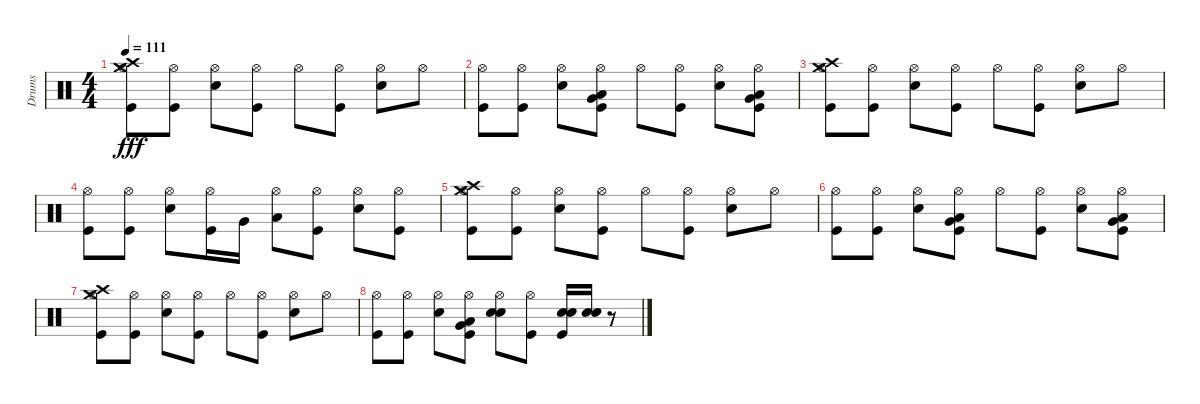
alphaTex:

\track ("Drums" "Drums") {instrument percussion}
\staff {score}
\articulation defaults
\ts (4 4)
\tempo 111
\clef neutral
\ks c
("Hi-Hat (open)" "Crash high (hit)" "Crash medium (hit)" "Kick (hit)").8{dy fff} ("Hi-Hat (open)" "Kick (hit)").8 ("Hi-Hat (open)" "Snare (hit) 2").8 ("Hi-Hat (open)" "Kick (hit)").8 "Hi-Hat (open)".8 ("Hi-Hat (open)" "Kick (hit)").8 ("Hi-Hat (open)" "Snare (hit) 2").8 "Hi-Hat (open)".8 |
("Hi-Hat (open)" "Kick (hit)").8 ("Hi-Hat (open)" "Kick (hit)").8 ("Hi-Hat (open)" "Snare (hit) 2").8 ("Hi-Hat (open)" "Very Low Tom (hit)" "Low Floor Tom (hit)" "Kick (hit)").8 "Hi-Hat (open)".8 ("Hi-Hat (open)" "Kick (hit)").8 ("Hi-Hat (open)" "Snare (hit) 2").8 ("Hi-Hat (open)" "Very Low Tom (hit)" "Low Floor Tom (hit)" "Kick (hit)").8 |
("Hi-Hat (open)" "Crash high (hit)" "Crash medium (hit)" "Kick (hit)").8 ("Hi-Hat (open)" "Kick (hit)").8 ("Hi-Hat (open)" "Snare (hit) 2").8 ("Hi-Hat (open)" "Kick (hit)").8 "Hi-Hat (open)".8 ("Hi-Hat (open)" "Kick (hit)").8 ("Hi-Hat (open)" "Snare (hit) 2").8 "Hi-Hat (open)".8 |
("Hi-Hat (open)" "Kick (hit)").8 ("Hi-Hat (open)" "Kick (hit)").8 ("Hi-Hat (open)" "Snare (hit) 2").8 ("Hi-Hat (open)" "Kick (hit)").16 "Very Low Tom (hit)".16 ("Hi-Hat (open)" "Low Floor Tom (hit)").8 ("Hi-Hat (open)" "Kick (hit)").8 ("Hi-Hat (open)" "Snare (hit) 2").8 ("Hi-Hat (open)" "Kick (hit)").8 |
("Hi-Hat (open)" "Crash high (hit)" "Crash medium (hit)" "Kick (hit)").8 ("Hi-Hat (open)" "Kick (hit)").8 ("Hi-Hat (open)" "Snare (hit) 2").8 ("Hi-Hat (open)" "Kick (hit)").8 "Hi-Hat (open)".8 ("Hi-Hat (open)" "Kick (hit)").8 ("Hi-Hat (open)" "Snare (hit) 2").8 "Hi-Hat (open)".8 |
("Hi-Hat (open)" "Kick (hit)").8 ("Hi-Hat (open)" "Kick (hit)").8 ("Hi-Hat (open)" "Snare (hit) 2").8 ("Hi-Hat (open)" "Very Low Tom (hit)" "Low Floor Tom (hit)" "Kick (hit)").8 "Hi-Hat (open)".8 ("Hi-Hat (open)" "Kick (hit)").8 ("Hi-Hat (open)" "Snare (hit) 2").8 ("Hi-Hat (open)" "Very Low Tom (hit)" "Low Floor Tom (hit)" "Kick (hit)").8 |
("Hi-Hat (open)" "Crash high (hit)" "Crash medium (hit)" "Kick (hit)").8 ("Hi-Hat (open)" "Kick (hit)").8 ("Hi-Hat (open)" "Snare (hit) 2").8 ("Hi-Hat (open)" "Kick (hit)").8 "Hi-Hat (open)".8 ("Hi-Hat (open)" "Kick (hit)").8 ("Hi-Hat (open)" "Snare (hit) 2").8 "Hi-Hat (open)".8 |
("Hi-Hat (open)" "Kick (hit)").8 ("Hi-Hat (open)" "Kick (hit)").8 ("Hi-Hat (open)" "Snare (hit) 2").8 ("Hi-Hat (open)" "Very Low Tom (hit)" "Low Floor Tom (hit)" "Kick (hit)").8 ("Hi-Hat (open)" "Snare (hit) 2" "Electric Snare (hit)").8 ("Hi-Hat (open)" "Kick (hit)").8 ("Snare (hit) 2" "Electric Snare (hit)" "Kick (hit)").16 ("Snare (hit) 2" "Electric Snare (hit)").16 r.8
